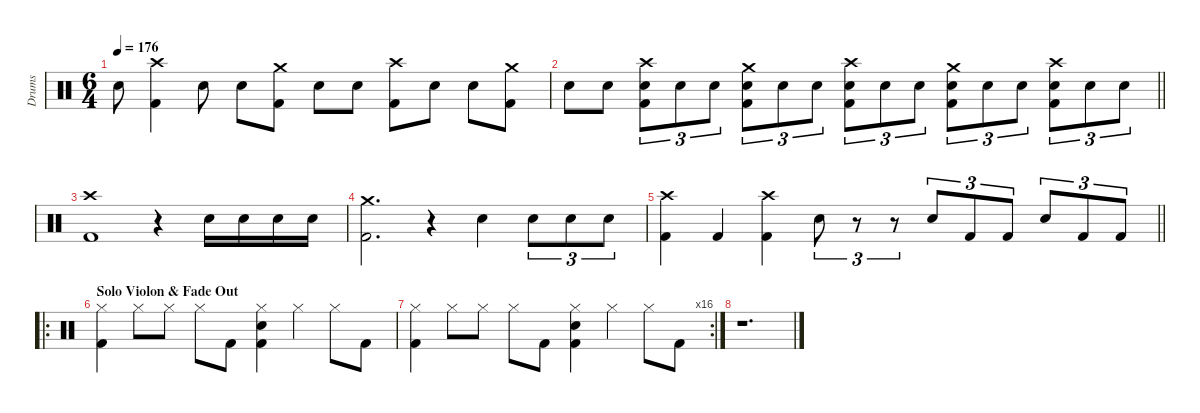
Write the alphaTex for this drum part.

\hideDynamics
\bracketExtendMode groupsimilarinstruments
\otherSystemsTrackNameOrientation horizontal
\track ("Drumkit" "Drums") {defaultSystemsLayout 4 instrument percussion}
\staff {score}
\articulation defaults
\ts (6 4)
\tempo 176
\clef neutral
\ks c "Snare (hit) 2".8{dy f beam Down}
("Crash high (hit)" "Kick (hit) 2").4{beam Down} "Snare (hit) 2".8{beam Down} "Snare (hit) 2".8{beam Down} ("Crash medium (hit)" "Kick (hit) 2").8{beam Down} "Snare (hit) 2".8{beam Down} "Snare (hit) 2".8{beam Down} ("Crash high (hit)" "Kick (hit) 2").8{beam Down} "Snare (hit) 2".8{beam Down} "Snare (hit) 2".8{beam Down} ("Crash medium (hit)" "Kick (hit) 2").8{beam Down} |
\barLineRight lightlight "Snare (hit) 2".8{beam Down} "Snare (hit) 2".8{beam Down}
("Crash high (hit)" "Snare (hit) 2" "Kick (hit) 2").8{tu (3 2) beam Down} "Snare (hit) 2".8{tu (3 2) beam Down} "Snare (hit) 2".8{tu (3 2) beam Down} ("Crash medium (hit)" "Snare (hit) 2" "Kick (hit) 2").8{tu (3 2) beam Down} "Snare (hit) 2".8{tu (3 2) beam Down} "Snare (hit) 2".8{tu (3 2) beam Down} ("Crash high (hit)" "Snare (hit) 2" "Kick (hit) 2").8{tu (3 2) beam Down} "Snare (hit) 2".8{tu (3 2) beam Down} "Snare (hit) 2".8{tu (3 2) beam Down} ("Crash medium (hit)" "Snare (hit) 2" "Kick (hit) 2").8{tu (3 2) beam Down} "Snare (hit) 2".8{tu (3 2) beam Down} "Snare (hit) 2".8{tu (3 2) beam Down} ("Crash high (hit)" "Snare (hit) 2" "Kick (hit) 2").8{tu (3 2) beam Down} "Snare (hit) 2".8{tu (3 2) beam Down} "Snare (hit) 2".8{tu (3 2) beam Down} |
("Crash high (hit)" "Kick (hit) 2").1{dy ff beam Down} r.4{beam Down} "Snare (hit) 2".16{dy mf beam Down} "Snare (hit) 2".16{dy f beam Down} "Snare (hit) 2".16{dy ff beam Down} "Snare (hit) 2".16{dy fff beam Down} |
("Crash medium (hit)" "Kick (hit) 2").2{d dy ff beam Down} r.4{beam Down} "Snare (hit) 2".4{dy fff beam Down} "Snare (hit) 2".8{tu (3 2) dy ff beam Down} "Snare (hit) 2".8{tu (3 2) beam Down} "Snare (hit) 2".8{tu (3 2) beam Down} |
\barLineRight lightlight
("Crash high (hit)" "Kick (hit) 2").4{dy f beam Down} "Kick (hit) 2".4{beam Up} ("Crash high (hit)" "Kick (hit) 2").4{beam Down} "Snare (hit) 2".8{tu (3 2) dy fff beam Down} r.8{tu (3 2) beam Down} r.8{tu (3 2) beam Down} "Snare (hit) 2".8{tu (3 2) beam Up} "Kick (hit) 2".8{tu (3 2) dy ff beam Up} "Kick (hit) 2".8{tu (3 2) beam Up} "Snare (hit) 2".8{tu (3 2) dy fff beam Up} "Kick (hit) 2".8{tu (3 2) dy ff beam Up} "Kick (hit) 2".8{tu (3 2) beam Up} |
\ro
\section ("" "Solo Violon & Fade Out")
("Hi-Hat (closed)" "Kick (hit) 2").4{dy f beam Down} "Hi-Hat (closed)".8{beam Down} "Hi-Hat (closed)".8{beam Down} "Hi-Hat (closed)".8{beam Down} "Kick (hit) 2".8{beam Down} ("Hi-Hat (closed)" "Snare (hit) 2" "Kick (hit) 2").4{beam Down} "Hi-Hat (closed)".4{beam Down} "Hi-Hat (closed)".8{beam Down} "Kick (hit) 2".8{beam Down} |
\rc 16
("Hi-Hat (closed)" "Kick (hit) 2").4{beam Down} "Hi-Hat (closed)".8{beam Down} "Hi-Hat (closed)".8{beam Down} "Hi-Hat (closed)".8{beam Down} "Kick (hit) 2".8{beam Down} ("Hi-Hat (closed)" "Snare (hit) 2" "Kick (hit) 2").4{beam Down} "Hi-Hat (closed)".4{beam Down} "Hi-Hat (closed)".8{beam Down} "Kick (hit) 2".8{beam Down} |
r.1{d beam Down}
